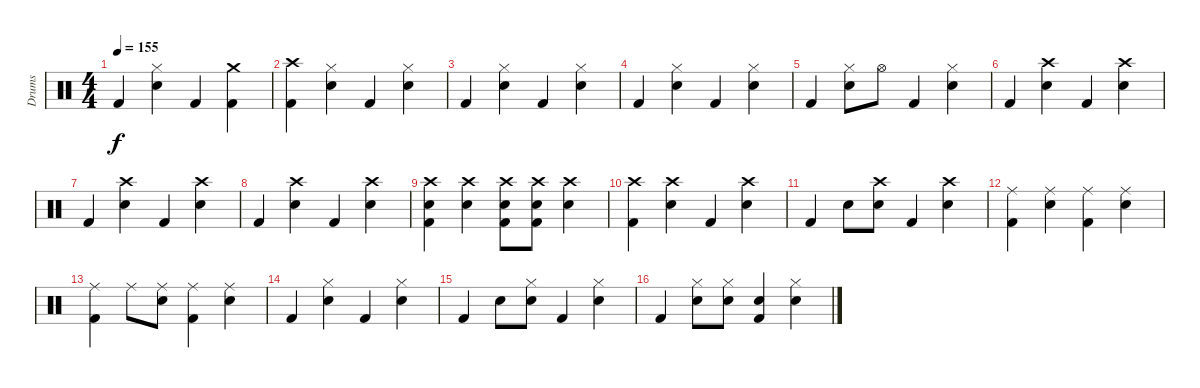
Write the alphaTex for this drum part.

\track ("Drums" "Drums") {instrument percussion}
\staff {score}
\articulation defaults
\ts (4 4)
\tempo 155
\clef neutral
\ks c "Kick (hit) 2".4{dy f}
("Electric Snare (hit)" "Hi-Hat (closed)").4 "Kick (hit) 2".4 ("Kick (hit) 2" "Crash medium (hit)").4 |
("Kick (hit) 2" "Crash high (hit)").4 ("Electric Snare (hit)" "Hi-Hat (closed)").4 "Kick (hit) 2".4 ("Electric Snare (hit)" "Hi-Hat (closed)").4 |
"Kick (hit) 2".4 ("Electric Snare (hit)" "Hi-Hat (closed)").4 "Kick (hit) 2".4 ("Electric Snare (hit)" "Hi-Hat (closed)").4 |
"Kick (hit) 2".4 ("Electric Snare (hit)" "Hi-Hat (closed)").4 "Kick (hit) 2".4 ("Electric Snare (hit)" "Hi-Hat (closed)").4 |
"Kick (hit) 2".4 ("Electric Snare (hit)" "Hi-Hat (closed)").8 "Hi-Hat (open)".8 "Kick (hit) 2".4 ("Electric Snare (hit)" "Hi-Hat (closed)").4 |
"Kick (hit) 2".4 ("Electric Snare (hit)" "Crash high (hit)").4 "Kick (hit) 2".4 ("Electric Snare (hit)" "Crash high (hit)").4 |
"Kick (hit) 2".4 ("Electric Snare (hit)" "Crash high (hit)").4 "Kick (hit) 2".4 ("Electric Snare (hit)" "Crash high (hit)").4 |
"Kick (hit) 2".4 ("Electric Snare (hit)" "Crash high (hit)").4 "Kick (hit) 2".4 ("Electric Snare (hit)" "Crash high (hit)").4 |
("Kick (hit) 2" "Electric Snare (hit)" "Crash high (hit)").4 ("Electric Snare (hit)" "Crash high (hit)").4 ("Kick (hit) 2" "Electric Snare (hit)" "Crash high (hit)").8 ("Kick (hit) 2" "Electric Snare (hit)" "Crash high (hit)").8 ("Electric Snare (hit)" "Crash high (hit)").4 |
("Kick (hit) 2" "Crash high (hit)").4 ("Electric Snare (hit)" "Crash high (hit)").4 "Kick (hit) 2".4 ("Electric Snare (hit)" "Crash high (hit)").4 |
"Kick (hit) 2".4 "Electric Snare (hit)".8 ("Electric Snare (hit)" "Crash high (hit)").8 "Kick (hit) 2".4 ("Electric Snare (hit)" "Crash high (hit)").4 |
("Kick (hit) 2" "Ride (middle)").4 ("Electric Snare (hit)" "Ride (middle)").4 ("Kick (hit) 2" "Ride (middle)").4 ("Electric Snare (hit)" "Ride (middle)").4 |
("Kick (hit) 2" "Ride (middle)").4 "Ride (middle)".8 ("Electric Snare (hit)" "Ride (middle)").8 ("Kick (hit) 2" "Ride (middle)").4 ("Electric Snare (hit)" "Ride (middle)").4 |
"Kick (hit) 2".4 ("Electric Snare (hit)" "Hi-Hat (closed)").4 "Kick (hit) 2".4 ("Electric Snare (hit)" "Hi-Hat (closed)").4 |
"Kick (hit) 2".4 "Electric Snare (hit)".8 ("Electric Snare (hit)" "Hi-Hat (closed)").8 "Kick (hit) 2".4 ("Electric Snare (hit)" "Hi-Hat (closed)").4 |
"Kick (hit) 2".4 ("Electric Snare (hit)" "Hi-Hat (closed)").8 ("Electric Snare (hit)" "Hi-Hat (closed)").8 ("Kick (hit) 2" "Electric Snare (hit)").4 ("Electric Snare (hit)" "Hi-Hat (closed)").4
